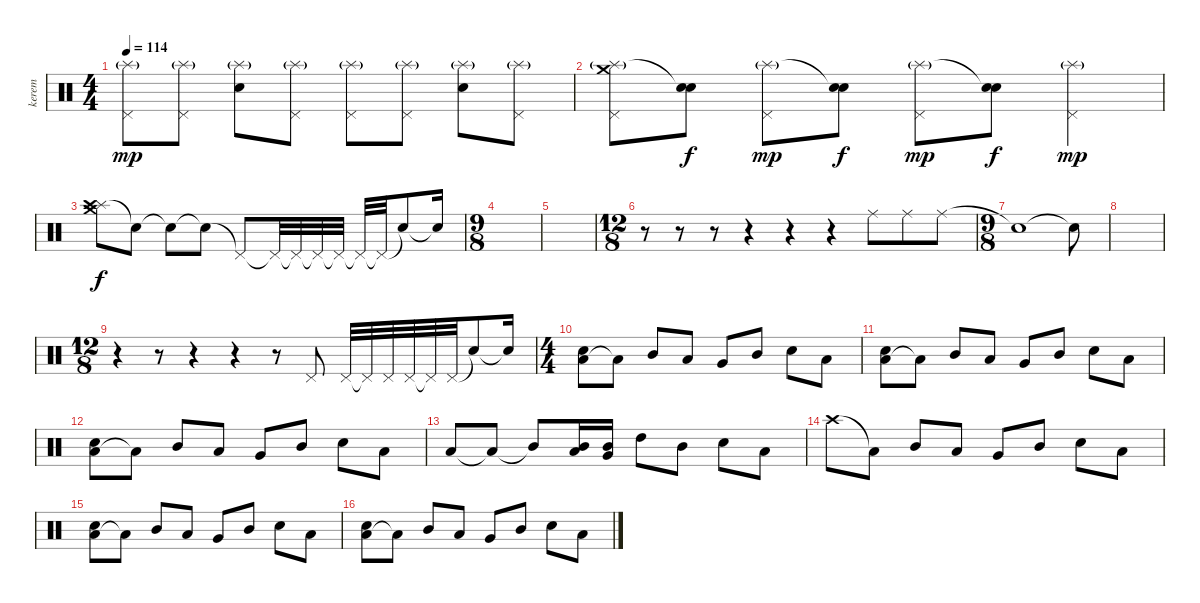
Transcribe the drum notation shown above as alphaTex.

\track ("kerem" "kerem") {instrument percussion}
\staff {score}
\articulation defaults
\ts (4 4)
\tempo 114
\clef neutral
\ks c
("Splash (hit)"{g} "Pedal Hi-Hat (hit)").8{dy mp} ("Splash (hit)"{g} "Pedal Hi-Hat (hit)").8 ("Splash (hit)"{g} "Snare (hit) 2").8 ("Splash (hit)"{g} "Pedal Hi-Hat (hit)").8 ("Splash (hit)"{g} "Pedal Hi-Hat (hit)").8 ("Splash (hit)"{g} "Pedal Hi-Hat (hit)").8 ("Splash (hit)"{g} "Snare (hit) 2").8 ("Splash (hit)"{g} "Pedal Hi-Hat (hit)").8 |
("Splash (hit)"{g} "Crash medium (hit)" "Pedal Hi-Hat (hit)").8 ("Snare (hit)"{t} "Snare (hit) 2").8{dy f} ("Splash (hit)"{g} "Pedal Hi-Hat (hit)").8{dy mp} ("Snare (hit)"{t} "Snare (hit) 2").8{dy f} ("Splash (hit)"{g} "Pedal Hi-Hat (hit)").8{dy mp} ("Snare (hit)"{t} "Snare (hit) 2").8{dy f} ("Splash (hit)"{g} "Pedal Hi-Hat (hit)").4{dy mp} |
("Splash (hit)" "Crash high (hit)" "Crash medium (hit)").8{dy f} "Snare (hit)"{t}.8 "Snare (hit)"{t}.8 "Snare (hit)"{t}.8 "Pedal Hi-Hat (hit)"{t}.8 "Pedal Hi-Hat (hit)"{t}.32 "Pedal Hi-Hat (hit)"{t}.32 "Pedal Hi-Hat (hit)"{t}.32 "Pedal Hi-Hat (hit)"{t}.32 "Pedal Hi-Hat (hit)"{t}.32 "Pedal Hi-Hat (hit)"{t}.32 "Snare (hit)"{t}.8 "Snare (hit)"{t}.16 |
\ts (9 8)
|
|
\ts (12 8)
r.8 r.8 r.8 r.4 r.4 r.4 "Ride (middle)".8{volume 12} "Ride (middle)".8{volume 13} "Ride (middle)".8{volume 15} |
\ts (9 8)
"Snare (hit)"{t}.1 "Snare (hit)"{t}.8 |
|
\ts (12 8)
r.4 r.8 r.4 r.4 r.8 "Pedal Hi-Hat (hit)".8 "Pedal Hi-Hat (hit)".32 "Pedal Hi-Hat (hit)"{t}.32 "Pedal Hi-Hat (hit)".32 "Pedal Hi-Hat (hit)".32 "Pedal Hi-Hat (hit)"{t}.32 "Pedal Hi-Hat (hit)".32 "Snare (hit)"{t}.8 "Snare (hit)"{t}.16 |
\ts (4 4)
("Low Tom (hit)" "Electric Snare (hit)").8{volume 12} "Low Floor Tom (hit)"{t}.8 "Mid Tom (hit)".8 "Low Tom (hit)".8 "Very Low Tom (hit)".8 "Mid Tom (hit)".8 "Snare (hit) 2".8 "Low Floor Tom (hit)".8 |
("Low Tom (hit)" "Electric Snare (hit)").8{volume 12} "Low Floor Tom (hit)"{t}.8 "Mid Tom (hit)".8 "Low Tom (hit)".8 "Very Low Tom (hit)".8 "Mid Tom (hit)".8 "Snare (hit) 2".8 "Low Floor Tom (hit)".8 |
("Low Tom (hit)" "Electric Snare (hit)").8{volume 12} "Low Floor Tom (hit)"{t}.8 "Mid Tom (hit)".8 "Low Tom (hit)".8 "Very Low Tom (hit)".8 "Mid Tom (hit)".8 "Snare (hit) 2".8 "Low Floor Tom (hit)".8 |
"Low Tom (hit)".8{volume 12} "Low Floor Tom (hit)"{t}.8 "Mid Tom (hit)"{t}.8 ("Low Tom (hit)" "Mid Tom (hit)").16 ("Very Low Tom (hit)" "Mid Tom (hit)").16 "High Tom (hit)".8 "Mid Tom (hit)".8 "Snare (hit) 2".8 "Low Floor Tom (hit)".8 |
"Crash high (hit)".8{volume 12} "Low Floor Tom (hit)"{t}.8 "Mid Tom (hit)".8 "Low Tom (hit)".8 "Very Low Tom (hit)".8 "Mid Tom (hit)".8 "Snare (hit) 2".8 "Low Floor Tom (hit)".8 |
("Low Tom (hit)" "Electric Snare (hit)").8{volume 12} "Low Floor Tom (hit)"{t}.8 "Mid Tom (hit)".8 "Low Tom (hit)".8 "Very Low Tom (hit)".8 "Mid Tom (hit)".8 "Snare (hit) 2".8 "Low Floor Tom (hit)".8 |
("Low Tom (hit)" "Electric Snare (hit)").8{volume 12} "Low Floor Tom (hit)"{t}.8 "Mid Tom (hit)".8 "Low Tom (hit)".8 "Very Low Tom (hit)".8 "Mid Tom (hit)".8 "Snare (hit) 2".8 "Low Floor Tom (hit)".8
